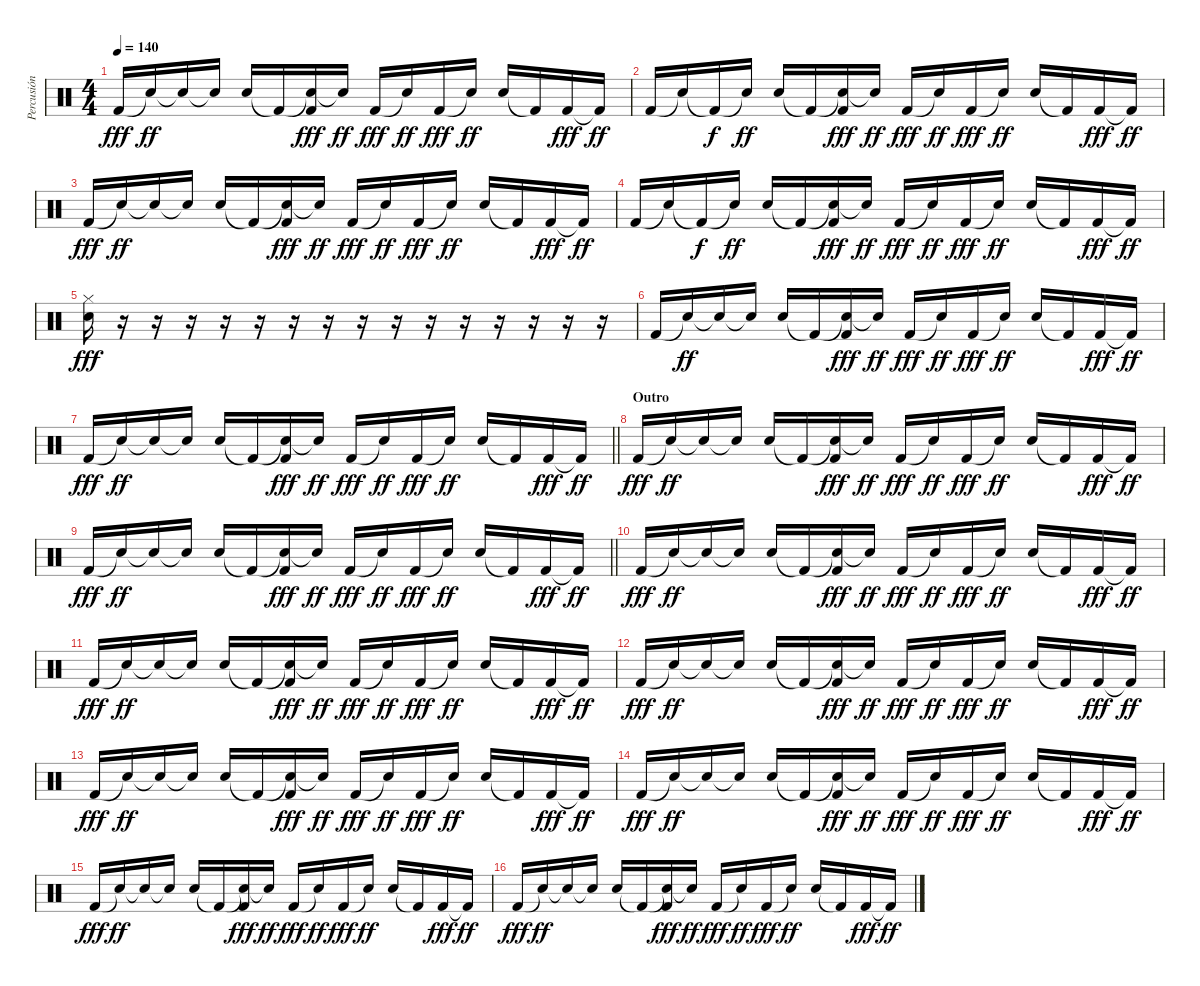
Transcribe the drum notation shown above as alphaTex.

\track ("Percusión" "Percusión") {instrument percussion}
\staff {score}
\articulation defaults
\ts (4 4)
\tempo 140
\clef neutral
\ks c "Kick (hit) 2".16{dy fff} "Snare (hit)"{t}.16{dy ff} "Electric Snare (hit)"{t}.16 "Snare (hit)"{t}.16 "Electric Snare (hit)".16 "Kick (hit) 2"{t}.16
("Electric Snare (hit)"{t} "Kick (hit) 2").16{dy fff} "Snare (hit)"{t}.16{dy ff} "Kick (hit) 2".16{dy fff} "Snare (hit)"{t}.16{dy ff} "Kick (hit) 2".16{dy fff} "Snare (hit)"{t}.16{dy ff} "Electric Snare (hit)".16 "Kick (hit) 2"{t}.16 "Kick (hit) 2".16{dy fff} "Kick (hit) 2"{t}.16{dy ff} |
"Kick (hit) 2".16 "Snare (hit)"{t}.16 "Kick (hit) 2"{t}.16{dy f} "Snare (hit)"{t}.16{dy ff} "Electric Snare (hit)".16 "Kick (hit) 2"{t}.16 ("Electric Snare (hit)"{t} "Kick (hit) 2").16{dy fff} "Snare (hit)"{t}.16{dy ff} "Kick (hit) 2".16{dy fff} "Snare (hit)"{t}.16{dy ff} "Kick (hit) 2".16{dy fff} "Snare (hit)"{t}.16{dy ff} "Electric Snare (hit)".16 "Kick (hit) 2"{t}.16 "Kick (hit) 2".16{dy fff} "Kick (hit) 2"{t}.16{dy ff} |
"Kick (hit) 2".16{dy fff} "Snare (hit)"{t}.16{dy ff} "Electric Snare (hit)"{t}.16 "Snare (hit)"{t}.16 "Electric Snare (hit)".16 "Kick (hit) 2"{t}.16 ("Electric Snare (hit)"{t} "Kick (hit) 2").16{dy fff} "Snare (hit)"{t}.16{dy ff} "Kick (hit) 2".16{dy fff} "Snare (hit)"{t}.16{dy ff} "Kick (hit) 2".16{dy fff} "Snare (hit)"{t}.16{dy ff} "Electric Snare (hit)".16 "Kick (hit) 2"{t}.16 "Kick (hit) 2".16{dy fff} "Kick (hit) 2"{t}.16{dy ff} |
"Kick (hit) 2".16 "Snare (hit)"{t}.16 "Kick (hit) 2"{t}.16{dy f} "Snare (hit)"{t}.16{dy ff} "Electric Snare (hit)".16 "Kick (hit) 2"{t}.16 ("Electric Snare (hit)"{t} "Kick (hit) 2").16{dy fff} "Snare (hit)"{t}.16{dy ff} "Kick (hit) 2".16{dy fff} "Snare (hit)"{t}.16{dy ff} "Kick (hit) 2".16{dy fff} "Snare (hit)"{t}.16{dy ff} "Electric Snare (hit)".16 "Kick (hit) 2"{t}.16 "Kick (hit) 2".16{dy fff} "Kick (hit) 2"{t}.16{dy ff} |
("Hi-Hat (closed)" "Electric Snare (hit)").16{dy fff} r.16 r.16 r.16 r.16 r.16 r.16 r.16 r.16 r.16 r.16 r.16 r.16 r.16 r.16 r.16 |
"Kick (hit) 2".16 "Snare (hit)"{t}.16{dy ff} "Electric Snare (hit)"{t}.16 "Snare (hit)"{t}.16 "Electric Snare (hit)".16 "Kick (hit) 2"{t}.16 ("Electric Snare (hit)"{t} "Kick (hit) 2").16{dy fff} "Snare (hit)"{t}.16{dy ff} "Kick (hit) 2".16{dy fff} "Snare (hit)"{t}.16{dy ff} "Kick (hit) 2".16{dy fff} "Snare (hit)"{t}.16{dy ff} "Electric Snare (hit)".16 "Kick (hit) 2"{t}.16 "Kick (hit) 2".16{dy fff} "Kick (hit) 2"{t}.16{dy ff} |
\barLineRight lightlight "Kick (hit) 2".16{dy fff} "Snare (hit)"{t}.16{dy ff} "Electric Snare (hit)"{t}.16 "Snare (hit)"{t}.16 "Electric Snare (hit)".16 "Kick (hit) 2"{t}.16
("Electric Snare (hit)"{t} "Kick (hit) 2").16{dy fff} "Snare (hit)"{t}.16{dy ff} "Kick (hit) 2".16{dy fff} "Snare (hit)"{t}.16{dy ff} "Kick (hit) 2".16{dy fff} "Snare (hit)"{t}.16{dy ff} "Electric Snare (hit)".16 "Kick (hit) 2"{t}.16 "Kick (hit) 2".16{dy fff} "Kick (hit) 2"{t}.16{dy ff} |
\section ("" "Outro")
"Kick (hit) 2".16{dy fff} "Snare (hit)"{t}.16{dy ff} "Electric Snare (hit)"{t}.16 "Snare (hit)"{t}.16 "Electric Snare (hit)".16 "Kick (hit) 2"{t}.16 ("Electric Snare (hit)"{t} "Kick (hit) 2").16{dy fff} "Snare (hit)"{t}.16{dy ff} "Kick (hit) 2".16{dy fff} "Snare (hit)"{t}.16{dy ff} "Kick (hit) 2".16{dy fff} "Snare (hit)"{t}.16{dy ff} "Electric Snare (hit)".16 "Kick (hit) 2"{t}.16 "Kick (hit) 2".16{dy fff} "Kick (hit) 2"{t}.16{dy ff} |
\barLineRight lightlight "Kick (hit) 2".16{dy fff} "Snare (hit)"{t}.16{dy ff} "Electric Snare (hit)"{t}.16 "Snare (hit)"{t}.16 "Electric Snare (hit)".16 "Kick (hit) 2"{t}.16
("Electric Snare (hit)"{t} "Kick (hit) 2").16{dy fff} "Snare (hit)"{t}.16{dy ff} "Kick (hit) 2".16{dy fff} "Snare (hit)"{t}.16{dy ff} "Kick (hit) 2".16{dy fff} "Snare (hit)"{t}.16{dy ff} "Electric Snare (hit)".16 "Kick (hit) 2"{t}.16 "Kick (hit) 2".16{dy fff} "Kick (hit) 2"{t}.16{dy ff} |
"Kick (hit) 2".16{dy fff} "Snare (hit)"{t}.16{dy ff} "Electric Snare (hit)"{t}.16 "Snare (hit)"{t}.16 "Electric Snare (hit)".16 "Kick (hit) 2"{t}.16 ("Electric Snare (hit)"{t} "Kick (hit) 2").16{dy fff} "Snare (hit)"{t}.16{dy ff} "Kick (hit) 2".16{dy fff} "Snare (hit)"{t}.16{dy ff} "Kick (hit) 2".16{dy fff} "Snare (hit)"{t}.16{dy ff} "Electric Snare (hit)".16 "Kick (hit) 2"{t}.16 "Kick (hit) 2".16{dy fff} "Kick (hit) 2"{t}.16{dy ff} |
"Kick (hit) 2".16{dy fff} "Snare (hit)"{t}.16{dy ff} "Electric Snare (hit)"{t}.16 "Snare (hit)"{t}.16 "Electric Snare (hit)".16 "Kick (hit) 2"{t}.16 ("Electric Snare (hit)"{t} "Kick (hit) 2").16{dy fff} "Snare (hit)"{t}.16{dy ff} "Kick (hit) 2".16{dy fff} "Snare (hit)"{t}.16{dy ff} "Kick (hit) 2".16{dy fff} "Snare (hit)"{t}.16{dy ff} "Electric Snare (hit)".16 "Kick (hit) 2"{t}.16 "Kick (hit) 2".16{dy fff} "Kick (hit) 2"{t}.16{dy ff} |
"Kick (hit) 2".16{dy fff} "Snare (hit)"{t}.16{dy ff} "Electric Snare (hit)"{t}.16 "Snare (hit)"{t}.16 "Electric Snare (hit)".16 "Kick (hit) 2"{t}.16 ("Electric Snare (hit)"{t} "Kick (hit) 2").16{dy fff} "Snare (hit)"{t}.16{dy ff} "Kick (hit) 2".16{dy fff} "Snare (hit)"{t}.16{dy ff} "Kick (hit) 2".16{dy fff} "Snare (hit)"{t}.16{dy ff} "Electric Snare (hit)".16 "Kick (hit) 2"{t}.16 "Kick (hit) 2".16{dy fff} "Kick (hit) 2"{t}.16{dy ff} |
"Kick (hit) 2".16{dy fff} "Snare (hit)"{t}.16{dy ff} "Electric Snare (hit)"{t}.16 "Snare (hit)"{t}.16 "Electric Snare (hit)".16 "Kick (hit) 2"{t}.16 ("Electric Snare (hit)"{t} "Kick (hit) 2").16{dy fff} "Snare (hit)"{t}.16{dy ff} "Kick (hit) 2".16{dy fff} "Snare (hit)"{t}.16{dy ff} "Kick (hit) 2".16{dy fff} "Snare (hit)"{t}.16{dy ff} "Electric Snare (hit)".16 "Kick (hit) 2"{t}.16 "Kick (hit) 2".16{dy fff} "Kick (hit) 2"{t}.16{dy ff} |
"Kick (hit) 2".16{dy fff} "Snare (hit)"{t}.16{dy ff} "Electric Snare (hit)"{t}.16 "Snare (hit)"{t}.16 "Electric Snare (hit)".16 "Kick (hit) 2"{t}.16 ("Electric Snare (hit)"{t} "Kick (hit) 2").16{dy fff} "Snare (hit)"{t}.16{dy ff} "Kick (hit) 2".16{dy fff} "Snare (hit)"{t}.16{dy ff} "Kick (hit) 2".16{dy fff} "Snare (hit)"{t}.16{dy ff} "Electric Snare (hit)".16 "Kick (hit) 2"{t}.16 "Kick (hit) 2".16{dy fff} "Kick (hit) 2"{t}.16{dy ff} |
"Kick (hit) 2".16{dy fff} "Snare (hit)"{t}.16{dy ff} "Electric Snare (hit)"{t}.16 "Snare (hit)"{t}.16 "Electric Snare (hit)".16 "Kick (hit) 2"{t}.16 ("Electric Snare (hit)"{t} "Kick (hit) 2").16{dy fff} "Snare (hit)"{t}.16{dy ff} "Kick (hit) 2".16{dy fff} "Snare (hit)"{t}.16{dy ff} "Kick (hit) 2".16{dy fff} "Snare (hit)"{t}.16{dy ff} "Electric Snare (hit)".16 "Kick (hit) 2"{t}.16 "Kick (hit) 2".16{dy fff} "Kick (hit) 2"{t}.16{dy ff} |
"Kick (hit) 2".16{dy fff} "Snare (hit)"{t}.16{dy ff} "Electric Snare (hit)"{t}.16 "Snare (hit)"{t}.16 "Electric Snare (hit)".16 "Kick (hit) 2"{t}.16 ("Electric Snare (hit)"{t} "Kick (hit) 2").16{dy fff} "Snare (hit)"{t}.16{dy ff} "Kick (hit) 2".16{dy fff} "Snare (hit)"{t}.16{dy ff} "Kick (hit) 2".16{dy fff} "Snare (hit)"{t}.16{dy ff} "Electric Snare (hit)".16 "Kick (hit) 2"{t}.16 "Kick (hit) 2".16{dy fff} "Kick (hit) 2"{t}.16{dy ff}
